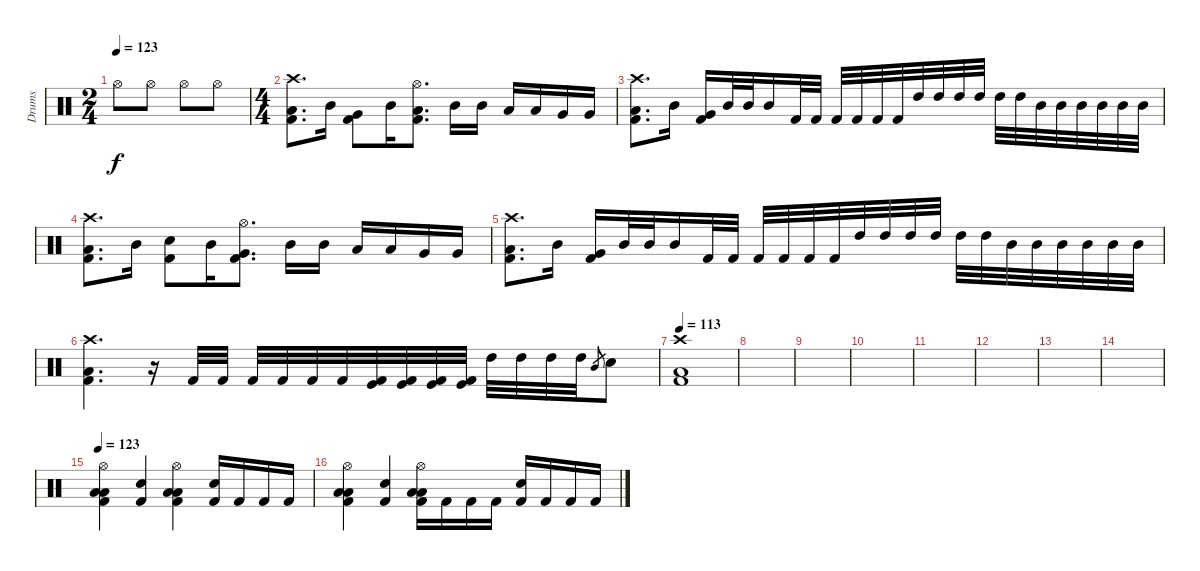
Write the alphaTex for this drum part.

\track ("Drums" "Drums") {instrument percussion}
\staff {score}
\articulation defaults
\ts (2 4)
\tempo 123
\tempo 103
\tempo 123
\clef neutral
\ks c "Hi-Hat (open)".8{dy f} "Hi-Hat (open)".8 "Hi-Hat (open)".8 "Hi-Hat (open)".8
|
\ts (4 4)
("Crash high (hit)" "Low Floor Tom (hit)" "Kick (hit) 2").8{d} "Mid Tom (hit)".16 ("Very Low Tom (hit)" "Kick (hit) 2").8 "Mid Tom (hit)".16 ("Hi-Hat (open)" "Low Floor Tom (hit)" "Kick (hit) 2").8{d} "Mid Tom (hit)".16 "Mid Tom (hit)".16 "Low Tom (hit)".16 "Low Tom (hit)".16 "Very Low Tom (hit)".16 "Very Low Tom (hit)".16 |
("Crash high (hit)" "Low Floor Tom (hit)" "Kick (hit) 2").8{d} "Mid Tom (hit)".16 ("Very Low Tom (hit)" "Kick (hit) 2").16 "Mid Tom (hit)".32 "Mid Tom (hit)".32 "Mid Tom (hit)".16 "Kick (hit) 2".32 "Kick (hit) 2".32 "Kick (hit) 2".32 "Kick (hit) 2".32 "Kick (hit) 2".32 "Kick (hit) 2".32 "High Tom (hit)".32 "High Tom (hit)".32 "High Tom (hit)".32 "High Tom (hit)".32 "High Tom (hit)".32 "High Tom (hit)".32 "Mid Tom (hit)".32 "Mid Tom (hit)".32 "Mid Tom (hit)".32 "Mid Tom (hit)".32 "Mid Tom (hit)".32 "Mid Tom (hit)".32 |
("Crash high (hit)" "Low Floor Tom (hit)" "Kick (hit) 2").8{d} "Mid Tom (hit)".16 ("Snare (hit) 2" "Kick (hit) 2").8 "Mid Tom (hit)".16 ("Hi-Hat (open)" "Very Low Tom (hit)" "Kick (hit) 2").8{d} "Mid Tom (hit)".16 "Mid Tom (hit)".16 "Low Tom (hit)".16 "Low Tom (hit)".16 "Very Low Tom (hit)".16 "Very Low Tom (hit)".16 |
("Crash high (hit)" "Low Floor Tom (hit)" "Kick (hit) 2").8{d} "Mid Tom (hit)".16 ("Very Low Tom (hit)" "Kick (hit) 2").16 "Mid Tom (hit)".32 "Mid Tom (hit)".32 "Mid Tom (hit)".16 "Kick (hit) 2".32 "Kick (hit) 2".32 "Kick (hit) 2".32 "Kick (hit) 2".32 "Kick (hit) 2".32 "Kick (hit) 2".32 "High Tom (hit)".32 "High Tom (hit)".32 "High Tom (hit)".32 "High Tom (hit)".32 "High Tom (hit)".32 "High Tom (hit)".32 "Mid Tom (hit)".32 "Mid Tom (hit)".32 "Mid Tom (hit)".32 "Mid Tom (hit)".32 "Mid Tom (hit)".32 "Mid Tom (hit)".32 |
("Crash high (hit)" "Low Tom (hit)" "Kick (hit) 2").4{d} r.16 "Kick (hit) 2".32 "Kick (hit) 2".32 "Kick (hit) 2".32 "Kick (hit) 2".32 "Kick (hit) 2".32 "Kick (hit) 2".32 ("Kick (hit)" "Kick (hit) 2").32 ("Kick (hit)" "Kick (hit) 2").32 ("Kick (hit)" "Kick (hit) 2").32 ("Kick (hit)" "Kick (hit) 2").32 "High Tom (hit)".32 "High Tom (hit)".32 "High Tom (hit)".32 "High Tom (hit)".32 "Mid Tom (hit)".8{gr} "Snare (hit) 2".8 |
\tempo 113
("Crash high (hit)" "Low Floor Tom (hit)" "Kick (hit) 2").1 |
|
|
|
|
|
|
|
\tempo 123
("Hi-Hat (open)" "Low Floor Tom (hit)" "Low Floor Tom (hit)" "Kick (hit) 2").4 ("Snare (hit) 2" "Kick (hit) 2").4 ("Hi-Hat (open)" "Low Floor Tom (hit)" "Low Floor Tom (hit)" "Kick (hit) 2").4 ("Snare (hit) 2" "Kick (hit) 2").16 "Kick (hit) 2".16 "Kick (hit) 2".16 "Kick (hit) 2".16 |
("Hi-Hat (open)" "Low Floor Tom (hit)" "Low Floor Tom (hit)" "Kick (hit) 2").4 ("Snare (hit) 2" "Kick (hit) 2").4 ("Hi-Hat (open)" "Low Floor Tom (hit)" "Low Floor Tom (hit)" "Kick (hit) 2").16 "Kick (hit) 2".16 "Kick (hit) 2".16 "Kick (hit) 2".16 ("Snare (hit) 2" "Kick (hit) 2").16 "Kick (hit) 2".16 "Kick (hit) 2".16 "Kick (hit) 2".16
